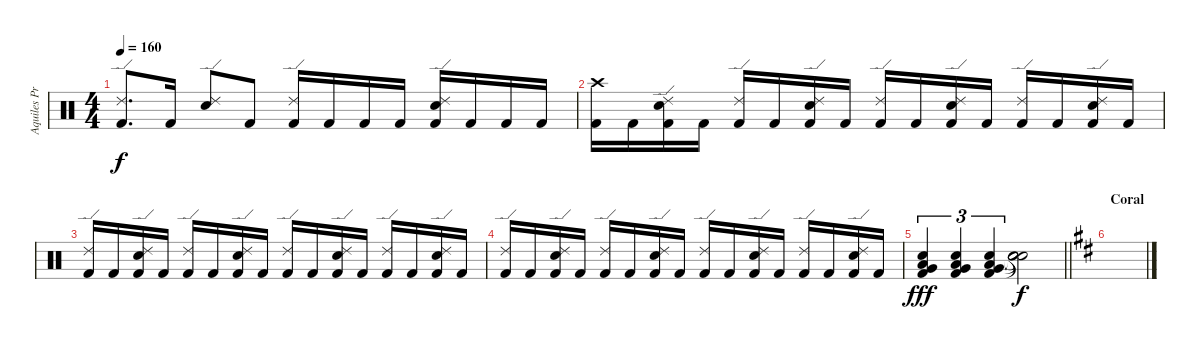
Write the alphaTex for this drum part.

\track ("Aquiles Priester" "Aquiles Pr") {instrument percussion}
\staff {score}
\articulation defaults
\ts (4 4)
\tempo 160
\clef neutral
\ks c
("Ride (edge) 2" "Kick (hit) 2").8{d dy f} "Kick (hit) 2".16 ("Ride (edge) 2" "Electric Snare (hit)").8 "Kick (hit) 2".8 ("Ride (edge) 2" "Kick (hit) 2").16 "Kick (hit) 2".16 "Kick (hit) 2".16 "Kick (hit) 2".16 ("Ride (edge) 2" "Electric Snare (hit)" "Kick (hit) 2").16 "Kick (hit) 2".16 "Kick (hit) 2".16 "Kick (hit) 2".16 |
("Crash high (hit)" "Kick (hit) 2").16 "Kick (hit) 2".16 ("Ride (edge) 2" "Electric Snare (hit)" "Kick (hit) 2").16 "Kick (hit) 2".16 ("Ride (edge) 2" "Kick (hit) 2").16 "Kick (hit) 2".16 ("Ride (edge) 2" "Electric Snare (hit)" "Kick (hit) 2").16 "Kick (hit) 2".16 ("Ride (edge) 2" "Kick (hit) 2").16 "Kick (hit) 2".16 ("Ride (edge) 2" "Electric Snare (hit)" "Kick (hit) 2").16 "Kick (hit) 2".16 ("Ride (edge) 2" "Kick (hit) 2").16 "Kick (hit) 2".16 ("Ride (edge) 2" "Electric Snare (hit)" "Kick (hit) 2").16 "Kick (hit) 2".16 |
("Ride (edge) 2" "Kick (hit) 2").16 "Kick (hit) 2".16 ("Ride (edge) 2" "Electric Snare (hit)" "Kick (hit) 2").16 "Kick (hit) 2".16 ("Ride (edge) 2" "Kick (hit) 2").16 "Kick (hit) 2".16 ("Ride (edge) 2" "Electric Snare (hit)" "Kick (hit) 2").16 "Kick (hit) 2".16 ("Ride (edge) 2" "Kick (hit) 2").16 "Kick (hit) 2".16 ("Ride (edge) 2" "Electric Snare (hit)" "Kick (hit) 2").16 "Kick (hit) 2".16 ("Ride (edge) 2" "Kick (hit) 2").16 "Kick (hit) 2".16 ("Ride (edge) 2" "Electric Snare (hit)" "Kick (hit) 2").16 "Kick (hit) 2".16 |
("Ride (edge) 2" "Kick (hit) 2").16 "Kick (hit) 2".16 ("Ride (edge) 2" "Electric Snare (hit)" "Kick (hit) 2").16 "Kick (hit) 2".16 ("Ride (edge) 2" "Kick (hit) 2").16 "Kick (hit) 2".16 ("Ride (edge) 2" "Electric Snare (hit)" "Kick (hit) 2").16 "Kick (hit) 2".16 ("Ride (edge) 2" "Kick (hit) 2").16 "Kick (hit) 2".16 ("Ride (edge) 2" "Electric Snare (hit)" "Kick (hit) 2").16 "Kick (hit) 2".16 ("Ride (edge) 2" "Kick (hit) 2").16 "Kick (hit) 2".16 ("Ride (edge) 2" "Electric Snare (hit)" "Kick (hit) 2").16 "Kick (hit) 2".16 |
\barLineRight lightlight
("Low Floor Tom (hit)" "Electric Snare (hit)" "Very Low Tom (hit)" "Kick (hit) 2").4{tu (3 2) dy fff} ("Low Floor Tom (hit)" "Electric Snare (hit)" "Very Low Tom (hit)" "Kick (hit) 2").4{tu (3 2)} ("Low Floor Tom (hit)" "Electric Snare (hit)" "Very Low Tom (hit)" "Kick (hit) 2").4{tu (3 2)} ("Snare (hit)"{t} "Snare (hit)"{t} "Snare (hit)"{t} "Snare (hit)"{t}).2{dy f} |
\section ("" "Coral")
\ks d
